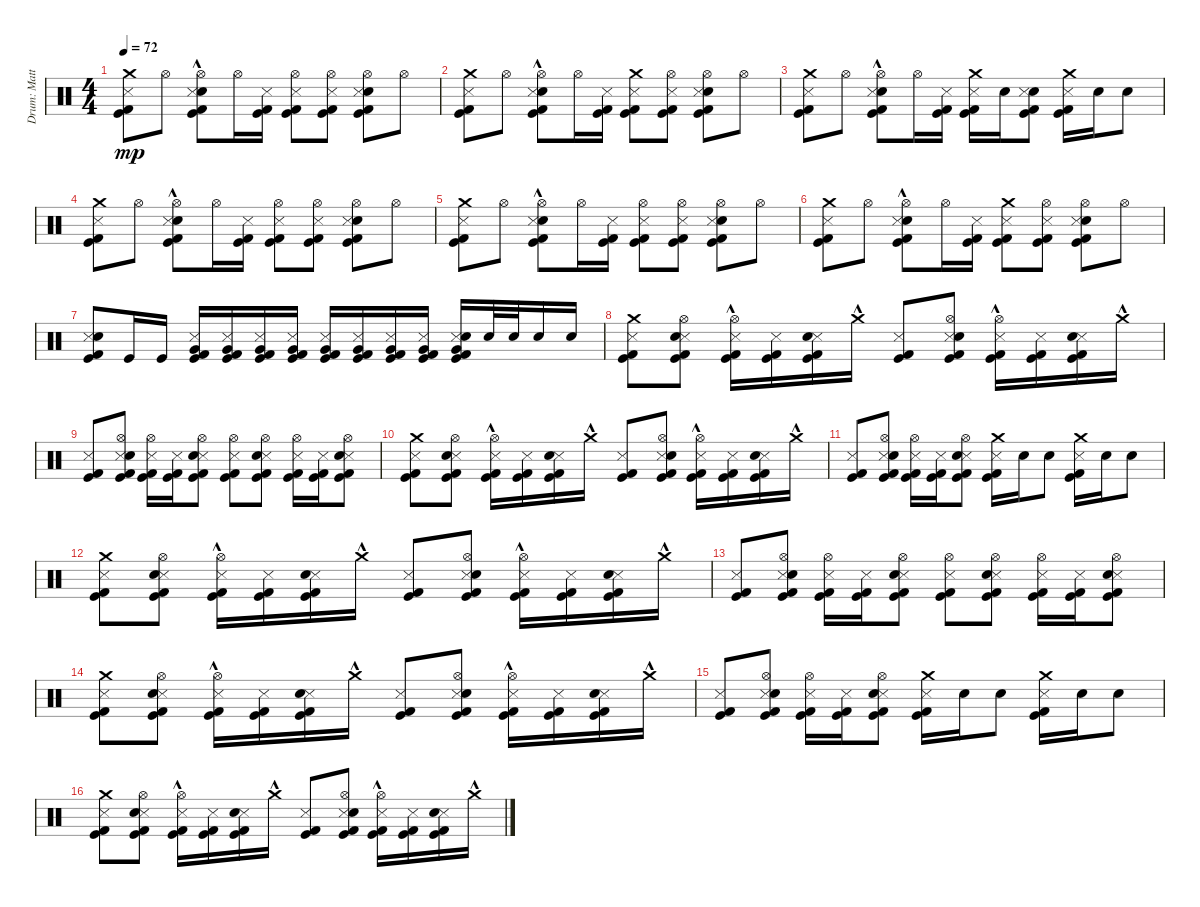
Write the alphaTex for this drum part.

\track ("Drum: Matt" "Drum: Matt") {instrument percussion}
\staff {score}
\articulation defaults
\ts (4 4)
\tempo 72
\clef neutral
\ks c
("Crash medium (hit)" "Metronome (hit)" "Kick (hit)" "Kick (hit) 2").8{dy mp} "Hi-Hat (open)".8 ("Snare (hit) 2" "Hi-Hat (open)" "Metronome (hit)"{hac} "Kick (hit)"{hac} "Kick (hit) 2"{hac}).8 "Hi-Hat (open)".16 ("Metronome (hit)" "Kick (hit)" "Kick (hit) 2").16 ("Hi-Hat (open)" "Metronome (hit)" "Kick (hit)" "Kick (hit) 2").8 ("Hi-Hat (open)" "Metronome (hit)" "Kick (hit)" "Kick (hit) 2").8 ("Snare (hit) 2" "Hi-Hat (open)" "Metronome (hit)" "Kick (hit)" "Kick (hit) 2").8 "Hi-Hat (open)".8 |
("Crash medium (hit)" "Metronome (hit)" "Kick (hit)" "Kick (hit) 2").8 "Hi-Hat (open)".8 ("Snare (hit) 2" "Hi-Hat (open)" "Metronome (hit)"{hac} "Kick (hit)"{hac} "Kick (hit) 2"{hac}).8 "Hi-Hat (open)".16 ("Metronome (hit)" "Kick (hit)" "Kick (hit) 2").16 ("Crash medium (hit)" "Metronome (hit)" "Kick (hit)" "Kick (hit) 2").8 ("Hi-Hat (open)" "Metronome (hit)" "Kick (hit)" "Kick (hit) 2").8 ("Snare (hit) 2" "Hi-Hat (open)" "Metronome (hit)" "Kick (hit)" "Kick (hit) 2").8 "Hi-Hat (open)".8 |
("Crash medium (hit)" "Metronome (hit)" "Kick (hit)" "Kick (hit) 2").8 "Hi-Hat (open)".8 ("Snare (hit) 2" "Hi-Hat (open)" "Metronome (hit)"{hac} "Kick (hit)"{hac} "Kick (hit) 2"{hac}).8 "Hi-Hat (open)".16 ("Metronome (hit)" "Kick (hit)" "Kick (hit) 2").16 ("Crash medium (hit)" "Metronome (hit)" "Kick (hit)" "Kick (hit) 2").16 "Snare (hit) 2".16 ("Snare (hit) 2" "Metronome (hit)" "Kick (hit)" "Kick (hit) 2").8 ("Crash medium (hit)" "Metronome (hit)" "Kick (hit)" "Kick (hit) 2").16 "Snare (hit) 2".16 "Snare (hit) 2".8 |
("Crash medium (hit)" "Metronome (hit)" "Kick (hit)" "Kick (hit) 2").8 "Hi-Hat (open)".8 ("Snare (hit) 2" "Hi-Hat (open)" "Metronome (hit)"{hac} "Kick (hit)"{hac} "Kick (hit) 2"{hac}).8 "Hi-Hat (open)".16 ("Metronome (hit)" "Kick (hit)" "Kick (hit) 2").16 ("Hi-Hat (open)" "Metronome (hit)" "Kick (hit)" "Kick (hit) 2").8 ("Hi-Hat (open)" "Metronome (hit)" "Kick (hit)" "Kick (hit) 2").8 ("Snare (hit) 2" "Hi-Hat (open)" "Metronome (hit)" "Kick (hit)" "Kick (hit) 2").8 "Hi-Hat (open)".8 |
("Crash medium (hit)" "Metronome (hit)" "Kick (hit)" "Kick (hit) 2").8 "Hi-Hat (open)".8 ("Snare (hit) 2" "Hi-Hat (open)" "Metronome (hit)"{hac} "Kick (hit)"{hac} "Kick (hit) 2"{hac}).8 "Hi-Hat (open)".16 ("Metronome (hit)" "Kick (hit)" "Kick (hit) 2").16 ("Hi-Hat (open)" "Metronome (hit)" "Kick (hit)" "Kick (hit) 2").8 ("Hi-Hat (open)" "Metronome (hit)" "Kick (hit)" "Kick (hit) 2").8 ("Snare (hit) 2" "Hi-Hat (open)" "Metronome (hit)" "Kick (hit)" "Kick (hit) 2").8 "Hi-Hat (open)".8 |
("Crash medium (hit)" "Metronome (hit)" "Kick (hit)" "Kick (hit) 2").8 "Hi-Hat (open)".8 ("Snare (hit) 2" "Hi-Hat (open)" "Metronome (hit)"{hac} "Kick (hit)"{hac} "Kick (hit) 2"{hac}).8 "Hi-Hat (open)".16 ("Metronome (hit)" "Kick (hit)" "Kick (hit) 2").16 ("Crash medium (hit)" "Metronome (hit)" "Kick (hit)" "Kick (hit) 2").8 ("Hi-Hat (open)" "Metronome (hit)" "Kick (hit)" "Kick (hit) 2").8 ("Snare (hit) 2" "Hi-Hat (open)" "Metronome (hit)" "Kick (hit)" "Kick (hit) 2").8 "Hi-Hat (open)".8 |
("Metronome (hit)" "Kick (hit)" "Kick (hit) 2" "Snare (hit) 2").8 "Kick (hit)".16 "Kick (hit)".16 ("Metronome (hit)" "Kick (hit)" "Kick (hit) 2" "Very Low Tom (hit)").16 ("Metronome (hit)" "Kick (hit)" "Kick (hit) 2" "Very Low Tom (hit)").16 ("Metronome (hit)" "Kick (hit)" "Kick (hit) 2" "Very Low Tom (hit)").16 ("Metronome (hit)" "Kick (hit)" "Kick (hit) 2" "Very Low Tom (hit)").16 ("Metronome (hit)" "Kick (hit)" "Kick (hit) 2" "Very Low Tom (hit)").16 ("Metronome (hit)" "Kick (hit)" "Kick (hit) 2" "Very Low Tom (hit)").16 ("Metronome (hit)" "Kick (hit)" "Kick (hit) 2" "Very Low Tom (hit)").16 ("Metronome (hit)" "Kick (hit)" "Kick (hit) 2" "Very Low Tom (hit)").16 ("Metronome (hit)" "Kick (hit)" "Kick (hit) 2" "Snare (hit) 2" "Very Low Tom (hit)").16 "Snare (hit) 2".32 "Snare (hit) 2".32 "Snare (hit) 2".16 "Snare (hit) 2".16 |
("Crash medium (hit)" "Metronome (hit)" "Kick (hit)" "Kick (hit) 2").8 ("Hi-Hat (open)" "Metronome (hit)" "Kick (hit)" "Kick (hit) 2" "Snare (hit) 2").8 ("Hi-Hat (open)"{hac} "Metronome (hit)" "Kick (hit)" "Kick (hit) 2").16 ("Metronome (hit)" "Kick (hit)" "Kick (hit) 2").16 ("Metronome (hit)" "Kick (hit)" "Kick (hit) 2" "Snare (hit) 2").16 "Crash medium (hit)"{hac}.16 ("Metronome (hit)" "Kick (hit)" "Kick (hit) 2").8 ("Hi-Hat (open)" "Metronome (hit)" "Kick (hit)" "Kick (hit) 2" "Snare (hit) 2").8 ("Hi-Hat (open)"{hac} "Metronome (hit)" "Kick (hit)" "Kick (hit) 2").16 ("Metronome (hit)" "Kick (hit)" "Kick (hit) 2").16 ("Metronome (hit)" "Kick (hit)" "Kick (hit) 2" "Snare (hit) 2").16 "Crash medium (hit)"{hac}.16 |
("Metronome (hit)" "Kick (hit)" "Kick (hit) 2").8 ("Hi-Hat (open)" "Metronome (hit)" "Kick (hit)" "Kick (hit) 2" "Snare (hit) 2").8 ("Hi-Hat (open)" "Metronome (hit)" "Kick (hit)" "Kick (hit) 2").16 ("Metronome (hit)" "Kick (hit)" "Kick (hit) 2").16 ("Hi-Hat (open)" "Metronome (hit)" "Kick (hit)" "Kick (hit) 2" "Snare (hit) 2").8 ("Hi-Hat (open)" "Metronome (hit)" "Kick (hit)" "Kick (hit) 2").8 ("Hi-Hat (open)" "Metronome (hit)" "Kick (hit)" "Kick (hit) 2" "Snare (hit) 2").8 ("Hi-Hat (open)" "Metronome (hit)" "Kick (hit)" "Kick (hit) 2").16 ("Metronome (hit)" "Kick (hit)" "Kick (hit) 2").16 ("Hi-Hat (open)" "Metronome (hit)" "Kick (hit)" "Kick (hit) 2" "Snare (hit) 2").8 |
("Crash medium (hit)" "Metronome (hit)" "Kick (hit)" "Kick (hit) 2").8 ("Hi-Hat (open)" "Metronome (hit)" "Kick (hit)" "Kick (hit) 2" "Snare (hit) 2").8 ("Hi-Hat (open)"{hac} "Metronome (hit)" "Kick (hit)" "Kick (hit) 2").16 ("Metronome (hit)" "Kick (hit)" "Kick (hit) 2").16 ("Metronome (hit)" "Kick (hit)" "Kick (hit) 2" "Snare (hit) 2").16 "Crash medium (hit)"{hac}.16 ("Metronome (hit)" "Kick (hit)" "Kick (hit) 2").8 ("Hi-Hat (open)" "Metronome (hit)" "Kick (hit)" "Kick (hit) 2" "Snare (hit) 2").8 ("Hi-Hat (open)"{hac} "Metronome (hit)" "Kick (hit)" "Kick (hit) 2").16 ("Metronome (hit)" "Kick (hit)" "Kick (hit) 2").16 ("Metronome (hit)" "Kick (hit)" "Kick (hit) 2" "Snare (hit) 2").16 "Crash medium (hit)"{hac}.16 |
("Metronome (hit)" "Kick (hit)" "Kick (hit) 2").8 ("Hi-Hat (open)" "Metronome (hit)" "Kick (hit)" "Kick (hit) 2" "Snare (hit) 2").8 ("Hi-Hat (open)" "Metronome (hit)" "Kick (hit)" "Kick (hit) 2").16 ("Metronome (hit)" "Kick (hit)" "Kick (hit) 2").16 ("Hi-Hat (open)" "Metronome (hit)" "Kick (hit)" "Kick (hit) 2" "Snare (hit) 2").8 ("Crash medium (hit)" "Metronome (hit)" "Kick (hit)" "Kick (hit) 2").16 "Snare (hit) 2".16 "Snare (hit) 2".8 ("Crash medium (hit)" "Metronome (hit)" "Kick (hit)" "Kick (hit) 2").16 "Snare (hit) 2".16 "Snare (hit) 2".8 |
("Crash medium (hit)" "Metronome (hit)" "Kick (hit)" "Kick (hit) 2").8 ("Hi-Hat (open)" "Metronome (hit)" "Kick (hit)" "Kick (hit) 2" "Snare (hit) 2").8 ("Hi-Hat (open)"{hac} "Metronome (hit)" "Kick (hit)" "Kick (hit) 2").16 ("Metronome (hit)" "Kick (hit)" "Kick (hit) 2").16 ("Metronome (hit)" "Kick (hit)" "Kick (hit) 2" "Snare (hit) 2").16 "Crash medium (hit)"{hac}.16 ("Metronome (hit)" "Kick (hit)" "Kick (hit) 2").8 ("Hi-Hat (open)" "Metronome (hit)" "Kick (hit)" "Kick (hit) 2" "Snare (hit) 2").8 ("Hi-Hat (open)"{hac} "Metronome (hit)" "Kick (hit)" "Kick (hit) 2").16 ("Metronome (hit)" "Kick (hit)" "Kick (hit) 2").16 ("Metronome (hit)" "Kick (hit)" "Kick (hit) 2" "Snare (hit) 2").16 "Crash medium (hit)"{hac}.16 |
("Metronome (hit)" "Kick (hit)" "Kick (hit) 2").8 ("Hi-Hat (open)" "Metronome (hit)" "Kick (hit)" "Kick (hit) 2" "Snare (hit) 2").8 ("Hi-Hat (open)" "Metronome (hit)" "Kick (hit)" "Kick (hit) 2").16 ("Metronome (hit)" "Kick (hit)" "Kick (hit) 2").16 ("Hi-Hat (open)" "Metronome (hit)" "Kick (hit)" "Kick (hit) 2" "Snare (hit) 2").8 ("Hi-Hat (open)" "Metronome (hit)" "Kick (hit)" "Kick (hit) 2").8 ("Hi-Hat (open)" "Metronome (hit)" "Kick (hit)" "Kick (hit) 2" "Snare (hit) 2").8 ("Hi-Hat (open)" "Metronome (hit)" "Kick (hit)" "Kick (hit) 2").16 ("Metronome (hit)" "Kick (hit)" "Kick (hit) 2").16 ("Hi-Hat (open)" "Metronome (hit)" "Kick (hit)" "Kick (hit) 2" "Snare (hit) 2").8 |
("Crash medium (hit)" "Metronome (hit)" "Kick (hit)" "Kick (hit) 2").8 ("Hi-Hat (open)" "Metronome (hit)" "Kick (hit)" "Kick (hit) 2" "Snare (hit) 2").8 ("Hi-Hat (open)"{hac} "Metronome (hit)" "Kick (hit)" "Kick (hit) 2").16 ("Metronome (hit)" "Kick (hit)" "Kick (hit) 2").16 ("Metronome (hit)" "Kick (hit)" "Kick (hit) 2" "Snare (hit) 2").16 "Crash medium (hit)"{hac}.16 ("Metronome (hit)" "Kick (hit)" "Kick (hit) 2").8 ("Hi-Hat (open)" "Metronome (hit)" "Kick (hit)" "Kick (hit) 2" "Snare (hit) 2").8 ("Hi-Hat (open)"{hac} "Metronome (hit)" "Kick (hit)" "Kick (hit) 2").16 ("Metronome (hit)" "Kick (hit)" "Kick (hit) 2").16 ("Metronome (hit)" "Kick (hit)" "Kick (hit) 2" "Snare (hit) 2").16 "Crash medium (hit)"{hac}.16 |
("Metronome (hit)" "Kick (hit)" "Kick (hit) 2").8 ("Hi-Hat (open)" "Metronome (hit)" "Kick (hit)" "Kick (hit) 2" "Snare (hit) 2").8 ("Hi-Hat (open)" "Metronome (hit)" "Kick (hit)" "Kick (hit) 2").16 ("Metronome (hit)" "Kick (hit)" "Kick (hit) 2").16 ("Hi-Hat (open)" "Metronome (hit)" "Kick (hit)" "Kick (hit) 2" "Snare (hit) 2").8 ("Crash medium (hit)" "Metronome (hit)" "Kick (hit)" "Kick (hit) 2").16 "Snare (hit) 2".16 "Snare (hit) 2".8 ("Crash medium (hit)" "Metronome (hit)" "Kick (hit)" "Kick (hit) 2").16 "Snare (hit) 2".16 "Snare (hit) 2".8 |
("Crash medium (hit)" "Metronome (hit)" "Kick (hit)" "Kick (hit) 2").8 ("Hi-Hat (open)" "Metronome (hit)" "Kick (hit)" "Kick (hit) 2" "Snare (hit) 2").8 ("Hi-Hat (open)"{hac} "Metronome (hit)" "Kick (hit)" "Kick (hit) 2").16 ("Metronome (hit)" "Kick (hit)" "Kick (hit) 2").16 ("Metronome (hit)" "Kick (hit)" "Kick (hit) 2" "Snare (hit) 2").16 "Crash medium (hit)"{hac}.16 ("Metronome (hit)" "Kick (hit)" "Kick (hit) 2").8 ("Hi-Hat (open)" "Metronome (hit)" "Kick (hit)" "Kick (hit) 2" "Snare (hit) 2").8 ("Hi-Hat (open)"{hac} "Metronome (hit)" "Kick (hit)" "Kick (hit) 2").16 ("Metronome (hit)" "Kick (hit)" "Kick (hit) 2").16 ("Metronome (hit)" "Kick (hit)" "Kick (hit) 2" "Snare (hit) 2").16 "Crash medium (hit)"{hac}.16
